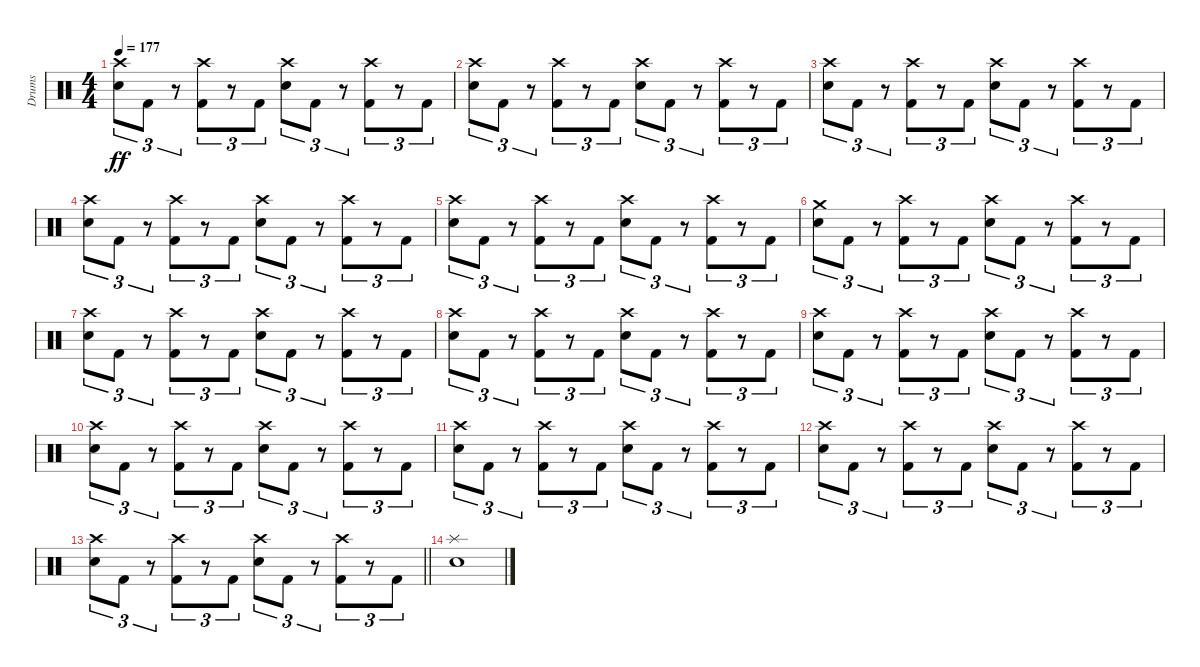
\track ("Drums" "Drums") {instrument percussion}
\staff {score}
\articulation defaults
\ts (4 4)
\tempo 177
\clef neutral
\ks c
("Crash high (hit)" "Electric Snare (hit)").8{tu (3 2) dy ff} "Kick (hit) 2".8{tu (3 2)} r.8{tu (3 2)} ("Crash high (hit)" "Kick (hit) 2").8{tu (3 2)} r.8{tu (3 2)} "Kick (hit) 2".8{tu (3 2)} ("Crash high (hit)" "Electric Snare (hit)").8{tu (3 2)} "Kick (hit) 2".8{tu (3 2)} r.8{tu (3 2)} ("Crash high (hit)" "Kick (hit) 2").8{tu (3 2)} r.8{tu (3 2)} "Kick (hit) 2".8{tu (3 2)} |
("Crash high (hit)" "Electric Snare (hit)").8{tu (3 2)} "Kick (hit) 2".8{tu (3 2)} r.8{tu (3 2)} ("Crash high (hit)" "Kick (hit) 2").8{tu (3 2)} r.8{tu (3 2)} "Kick (hit) 2".8{tu (3 2)} ("Crash high (hit)" "Electric Snare (hit)").8{tu (3 2)} "Kick (hit) 2".8{tu (3 2)} r.8{tu (3 2)} ("Crash high (hit)" "Kick (hit) 2").8{tu (3 2)} r.8{tu (3 2)} "Kick (hit) 2".8{tu (3 2)} |
("Crash high (hit)" "Electric Snare (hit)").8{tu (3 2)} "Kick (hit) 2".8{tu (3 2)} r.8{tu (3 2)} ("Crash high (hit)" "Kick (hit) 2").8{tu (3 2)} r.8{tu (3 2)} "Kick (hit) 2".8{tu (3 2)} ("Crash high (hit)" "Electric Snare (hit)").8{tu (3 2)} "Kick (hit) 2".8{tu (3 2)} r.8{tu (3 2)} ("Crash high (hit)" "Kick (hit) 2").8{tu (3 2)} r.8{tu (3 2)} "Kick (hit) 2".8{tu (3 2)} |
("Crash high (hit)" "Electric Snare (hit)").8{tu (3 2)} "Kick (hit) 2".8{tu (3 2)} r.8{tu (3 2)} ("Crash high (hit)" "Kick (hit) 2").8{tu (3 2)} r.8{tu (3 2)} "Kick (hit) 2".8{tu (3 2)} ("Crash high (hit)" "Electric Snare (hit)").8{tu (3 2)} "Kick (hit) 2".8{tu (3 2)} r.8{tu (3 2)} ("Crash high (hit)" "Kick (hit) 2").8{tu (3 2)} r.8{tu (3 2)} "Kick (hit) 2".8{tu (3 2)} |
("Crash high (hit)" "Electric Snare (hit)").8{tu (3 2)} "Kick (hit) 2".8{tu (3 2)} r.8{tu (3 2)} ("Crash high (hit)" "Kick (hit) 2").8{tu (3 2)} r.8{tu (3 2)} "Kick (hit) 2".8{tu (3 2)} ("Crash high (hit)" "Electric Snare (hit)").8{tu (3 2)} "Kick (hit) 2".8{tu (3 2)} r.8{tu (3 2)} ("Crash high (hit)" "Kick (hit) 2").8{tu (3 2)} r.8{tu (3 2)} "Kick (hit) 2".8{tu (3 2)} |
("Crash medium (hit)" "Electric Snare (hit)").8{tu (3 2)} "Kick (hit) 2".8{tu (3 2)} r.8{tu (3 2)} ("Crash high (hit)" "Kick (hit) 2").8{tu (3 2)} r.8{tu (3 2)} "Kick (hit) 2".8{tu (3 2)} ("Crash high (hit)" "Electric Snare (hit)").8{tu (3 2)} "Kick (hit) 2".8{tu (3 2)} r.8{tu (3 2)} ("Crash high (hit)" "Kick (hit) 2").8{tu (3 2)} r.8{tu (3 2)} "Kick (hit) 2".8{tu (3 2)} |
("Crash high (hit)" "Electric Snare (hit)").8{tu (3 2)} "Kick (hit) 2".8{tu (3 2)} r.8{tu (3 2)} ("Crash high (hit)" "Kick (hit) 2").8{tu (3 2)} r.8{tu (3 2)} "Kick (hit) 2".8{tu (3 2)} ("Crash high (hit)" "Electric Snare (hit)").8{tu (3 2)} "Kick (hit) 2".8{tu (3 2)} r.8{tu (3 2)} ("Crash high (hit)" "Kick (hit) 2").8{tu (3 2)} r.8{tu (3 2)} "Kick (hit) 2".8{tu (3 2)} |
("Crash high (hit)" "Electric Snare (hit)").8{tu (3 2)} "Kick (hit) 2".8{tu (3 2)} r.8{tu (3 2)} ("Crash high (hit)" "Kick (hit) 2").8{tu (3 2)} r.8{tu (3 2)} "Kick (hit) 2".8{tu (3 2)} ("Crash high (hit)" "Electric Snare (hit)").8{tu (3 2)} "Kick (hit) 2".8{tu (3 2)} r.8{tu (3 2)} ("Crash high (hit)" "Kick (hit) 2").8{tu (3 2)} r.8{tu (3 2)} "Kick (hit) 2".8{tu (3 2)} |
("Crash high (hit)" "Electric Snare (hit)").8{tu (3 2)} "Kick (hit) 2".8{tu (3 2)} r.8{tu (3 2)} ("Crash high (hit)" "Kick (hit) 2").8{tu (3 2)} r.8{tu (3 2)} "Kick (hit) 2".8{tu (3 2)} ("Crash high (hit)" "Electric Snare (hit)").8{tu (3 2)} "Kick (hit) 2".8{tu (3 2)} r.8{tu (3 2)} ("Crash high (hit)" "Kick (hit) 2").8{tu (3 2)} r.8{tu (3 2)} "Kick (hit) 2".8{tu (3 2)} |
("Crash high (hit)" "Electric Snare (hit)").8{tu (3 2)} "Kick (hit) 2".8{tu (3 2)} r.8{tu (3 2)} ("Crash high (hit)" "Kick (hit) 2").8{tu (3 2)} r.8{tu (3 2)} "Kick (hit) 2".8{tu (3 2)} ("Crash high (hit)" "Electric Snare (hit)").8{tu (3 2)} "Kick (hit) 2".8{tu (3 2)} r.8{tu (3 2)} ("Crash high (hit)" "Kick (hit) 2").8{tu (3 2)} r.8{tu (3 2)} "Kick (hit) 2".8{tu (3 2)} |
("Crash high (hit)" "Electric Snare (hit)").8{tu (3 2)} "Kick (hit) 2".8{tu (3 2)} r.8{tu (3 2)} ("Crash high (hit)" "Kick (hit) 2").8{tu (3 2)} r.8{tu (3 2)} "Kick (hit) 2".8{tu (3 2)} ("Crash high (hit)" "Electric Snare (hit)").8{tu (3 2)} "Kick (hit) 2".8{tu (3 2)} r.8{tu (3 2)} ("Crash high (hit)" "Kick (hit) 2").8{tu (3 2)} r.8{tu (3 2)} "Kick (hit) 2".8{tu (3 2)} |
("Crash high (hit)" "Electric Snare (hit)").8{tu (3 2)} "Kick (hit) 2".8{tu (3 2)} r.8{tu (3 2)} ("Crash high (hit)" "Kick (hit) 2").8{tu (3 2)} r.8{tu (3 2)} "Kick (hit) 2".8{tu (3 2)} ("Crash high (hit)" "Electric Snare (hit)").8{tu (3 2)} "Kick (hit) 2".8{tu (3 2)} r.8{tu (3 2)} ("Crash high (hit)" "Kick (hit) 2").8{tu (3 2)} r.8{tu (3 2)} "Kick (hit) 2".8{tu (3 2)} |
\barLineRight lightlight
("Crash high (hit)" "Electric Snare (hit)").8{tu (3 2)} "Kick (hit) 2".8{tu (3 2)} r.8{tu (3 2)} ("Crash high (hit)" "Kick (hit) 2").8{tu (3 2)} r.8{tu (3 2)} "Kick (hit) 2".8{tu (3 2)} ("Crash high (hit)" "Electric Snare (hit)").8{tu (3 2)} "Kick (hit) 2".8{tu (3 2)} r.8{tu (3 2)} ("Crash high (hit)" "Kick (hit) 2").8{tu (3 2)} r.8{tu (3 2)} "Kick (hit) 2".8{tu (3 2)} |
("Splash (hit)" "Electric Snare (hit)").1
